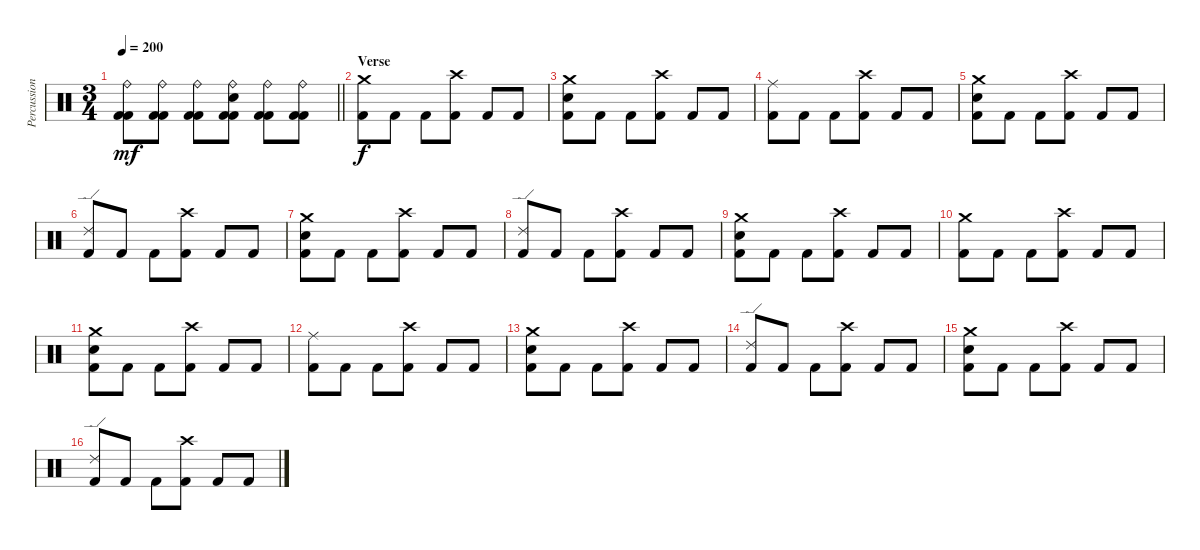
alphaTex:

\track ("Percussion" "Percussion") {instrument percussion}
\staff {score}
\articulation defaults
\ts (3 4)
\tempo 200
\clef neutral
\barLineRight lightlight
\ks c
("Ride (bell)" "Kick (hit) 2" "Kick (hit) 2").8{dy mf} ("Ride (bell)" "Kick (hit) 2" "Kick (hit) 2").8 ("Ride (bell)" "Kick (hit) 2" "Kick (hit) 2").8 ("Ride (bell)" "Electric Snare (hit)" "Kick (hit) 2" "Kick (hit) 2").8 ("Ride (bell)" "Kick (hit) 2" "Kick (hit) 2").8 ("Ride (bell)" "Kick (hit) 2" "Kick (hit) 2").8 |
\section ("" "Verse")
("Crash medium (hit)" "Kick (hit) 2").8{dy f} "Kick (hit) 2".8 "Kick (hit) 2".8 ("Crash high (hit)" "Kick (hit) 2").8 "Kick (hit) 2".8 "Kick (hit) 2".8 |
("Crash medium (hit)" "Electric Snare (hit)" "Kick (hit) 2").8 "Kick (hit) 2".8 "Kick (hit) 2".8 ("Crash high (hit)" "Kick (hit) 2").8 "Kick (hit) 2".8 "Kick (hit) 2".8 |
("Ride (middle)" "Kick (hit) 2").8 "Kick (hit) 2".8 "Kick (hit) 2".8 ("Crash high (hit)" "Kick (hit) 2").8 "Kick (hit) 2".8 "Kick (hit) 2".8 |
("Crash medium (hit)" "Electric Snare (hit)" "Kick (hit) 2").8 "Kick (hit) 2".8 "Kick (hit) 2".8 ("Crash high (hit)" "Kick (hit) 2").8 "Kick (hit) 2".8 "Kick (hit) 2".8 |
("Ride (edge) 2" "Kick (hit) 2").8 "Kick (hit) 2".8 "Kick (hit) 2".8 ("Crash high (hit)" "Kick (hit) 2").8 "Kick (hit) 2".8 "Kick (hit) 2".8 |
("Crash medium (hit)" "Electric Snare (hit)" "Kick (hit) 2").8 "Kick (hit) 2".8 "Kick (hit) 2".8 ("Crash high (hit)" "Kick (hit) 2").8 "Kick (hit) 2".8 "Kick (hit) 2".8 |
("Ride (edge) 2" "Kick (hit) 2").8 "Kick (hit) 2".8 "Kick (hit) 2".8 ("Crash high (hit)" "Kick (hit) 2").8 "Kick (hit) 2".8 "Kick (hit) 2".8 |
("Crash medium (hit)" "Electric Snare (hit)" "Kick (hit) 2").8 "Kick (hit) 2".8 "Kick (hit) 2".8 ("Crash high (hit)" "Kick (hit) 2").8 "Kick (hit) 2".8 "Kick (hit) 2".8 |
("Crash medium (hit)" "Kick (hit) 2").8 "Kick (hit) 2".8 "Kick (hit) 2".8 ("Crash high (hit)" "Kick (hit) 2").8 "Kick (hit) 2".8 "Kick (hit) 2".8 |
("Crash medium (hit)" "Electric Snare (hit)" "Kick (hit) 2").8 "Kick (hit) 2".8 "Kick (hit) 2".8 ("Crash high (hit)" "Kick (hit) 2").8 "Kick (hit) 2".8 "Kick (hit) 2".8 |
("Ride (middle)" "Kick (hit) 2").8 "Kick (hit) 2".8 "Kick (hit) 2".8 ("Crash high (hit)" "Kick (hit) 2").8 "Kick (hit) 2".8 "Kick (hit) 2".8 |
("Crash medium (hit)" "Electric Snare (hit)" "Kick (hit) 2").8 "Kick (hit) 2".8 "Kick (hit) 2".8 ("Crash high (hit)" "Kick (hit) 2").8 "Kick (hit) 2".8 "Kick (hit) 2".8 |
("Ride (edge) 2" "Kick (hit) 2").8 "Kick (hit) 2".8 "Kick (hit) 2".8 ("Crash high (hit)" "Kick (hit) 2").8 "Kick (hit) 2".8 "Kick (hit) 2".8 |
("Crash medium (hit)" "Electric Snare (hit)" "Kick (hit) 2").8 "Kick (hit) 2".8 "Kick (hit) 2".8 ("Crash high (hit)" "Kick (hit) 2").8 "Kick (hit) 2".8 "Kick (hit) 2".8 |
("Ride (edge) 2" "Kick (hit) 2").8 "Kick (hit) 2".8 "Kick (hit) 2".8 ("Crash high (hit)" "Kick (hit) 2").8 "Kick (hit) 2".8 "Kick (hit) 2".8
